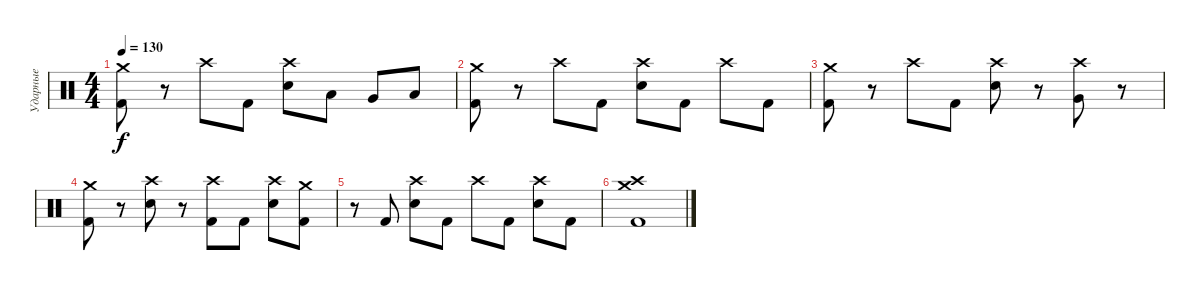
\track ("Ударные" "Ударные") {instrument percussion}
\staff {score}
\articulation defaults
\ts (4 4)
\tempo 130
\clef neutral
\ks c
("Crash medium (hit)" "Kick (hit) 2").8{dy f} r.8 "Crash high (hit)".8 "Kick (hit) 2".8 ("Crash high (hit)" "Snare (hit) 2").8 "Low Tom (hit)".8 "Very Low Tom (hit)".8 "Low Floor Tom (hit)".8 |
("Crash medium (hit)" "Kick (hit) 2").8 r.8 "Crash high (hit)".8 "Kick (hit) 2".8 ("Crash high (hit)" "Snare (hit) 2").8 "Kick (hit) 2".8 "Crash high (hit)".8 "Kick (hit) 2".8 |
("Crash medium (hit)" "Kick (hit) 2").8 r.8 "Crash high (hit)".8 "Kick (hit) 2".8 ("Crash high (hit)" "Snare (hit) 2").8 r.8 ("Crash high (hit)" "Very Low Tom (hit)").8 r.8 |
("Crash medium (hit)" "Kick (hit) 2").8 r.8 ("Crash high (hit)" "Snare (hit) 2").8 r.8 ("Crash high (hit)" "Kick (hit) 2").8 "Kick (hit) 2".8 ("Crash high (hit)" "Snare (hit) 2").8 ("Crash medium (hit)" "Kick (hit) 2").8 |
r.8 "Kick (hit) 2".8 ("Crash high (hit)" "Snare (hit) 2").8 "Kick (hit) 2".8 "Crash high (hit)".8 "Kick (hit) 2".8 ("Crash high (hit)" "Snare (hit) 2").8 "Kick (hit) 2".8 |
("Crash medium (hit)" "Crash high (hit)" "Kick (hit) 2").1
